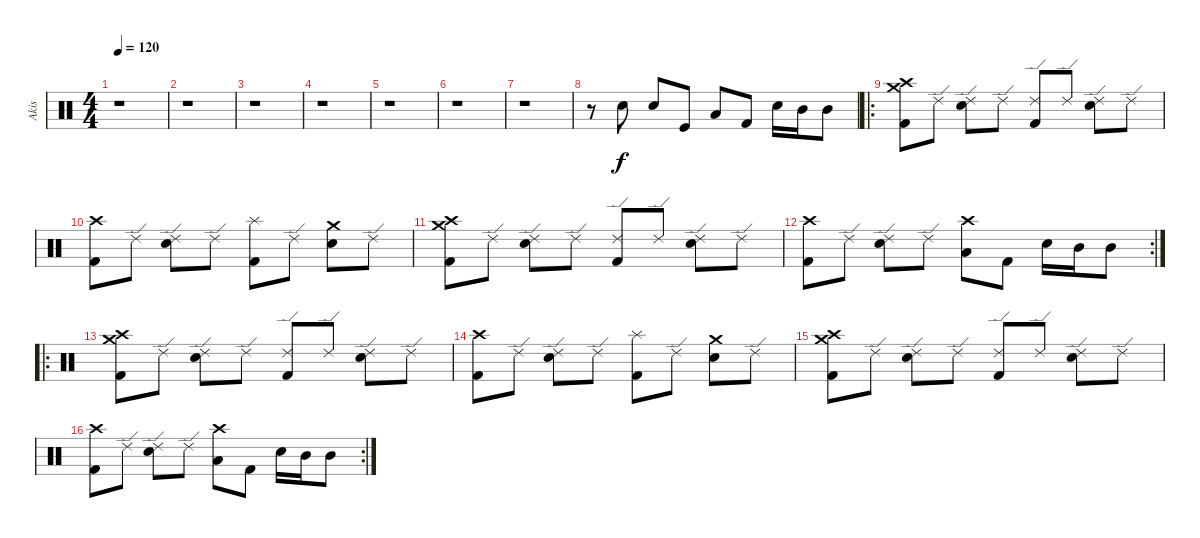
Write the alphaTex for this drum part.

\track ("Akis" "Akis") {instrument percussion}
\staff {score}
\articulation defaults
\ts (4 4)
\tempo 120
\clef neutral
\ks c
r.1{dy f} |
r.1 |
r.1 |
r.1 |
r.1 |
r.1 |
r.1 |
r.8 "Electric Snare (hit)".8 "Electric Snare (hit)".8 "Kick (hit)".8 "Low Tom (hit)".8 "Kick (hit) 2".8 "Electric Snare (hit)".16 "Mid Tom (hit)".16 "Mid Tom (hit)".8 |
\ro
("Crash high (hit)" "Kick (hit) 2" "Crash medium (hit)").8 "Ride (edge) 2".8 ("Ride (edge) 2" "Electric Snare (hit)").8 "Ride (edge) 2".8 ("Ride (edge) 2" "Kick (hit) 2").8 "Ride (edge) 2".8 ("Ride (edge) 2" "Electric Snare (hit)").8 "Ride (edge) 2".8 |
("Crash high (hit)" "Kick (hit) 2").8 "Ride (edge) 2".8 ("Ride (edge) 2" "Electric Snare (hit)").8 "Ride (edge) 2".8 ("Splash (hit)" "Kick (hit) 2").8 "Ride (edge) 2".8 ("Crash medium (hit)" "Electric Snare (hit)").8 "Ride (edge) 2".8 |
("Crash high (hit)" "Kick (hit) 2" "Crash medium (hit)").8 "Ride (edge) 2".8 ("Ride (edge) 2" "Electric Snare (hit)").8 "Ride (edge) 2".8 ("Ride (edge) 2" "Kick (hit) 2").8 "Ride (edge) 2".8 ("Ride (edge) 2" "Electric Snare (hit)").8 "Ride (edge) 2".8 |
\rc 2
("Crash high (hit)" "Kick (hit) 2").8 "Ride (edge) 2".8 ("Ride (edge) 2" "Electric Snare (hit)").8 "Ride (edge) 2".8 ("Crash high (hit)" "Low Tom (hit)").8 "Kick (hit) 2".8 "Electric Snare (hit)".16 "Mid Tom (hit)".16 "Mid Tom (hit)".8 |
\ro
("Crash high (hit)" "Kick (hit) 2" "Crash medium (hit)").8 "Ride (edge) 2".8 ("Ride (edge) 2" "Electric Snare (hit)").8 "Ride (edge) 2".8 ("Ride (edge) 2" "Kick (hit) 2").8 "Ride (edge) 2".8 ("Ride (edge) 2" "Electric Snare (hit)").8 "Ride (edge) 2".8 |
("Crash high (hit)" "Kick (hit) 2").8 "Ride (edge) 2".8 ("Ride (edge) 2" "Electric Snare (hit)").8 "Ride (edge) 2".8 ("Splash (hit)" "Kick (hit) 2").8 "Ride (edge) 2".8 ("Crash medium (hit)" "Electric Snare (hit)").8 "Ride (edge) 2".8 |
("Crash high (hit)" "Kick (hit) 2" "Crash medium (hit)").8 "Ride (edge) 2".8 ("Ride (edge) 2" "Electric Snare (hit)").8 "Ride (edge) 2".8 ("Ride (edge) 2" "Kick (hit) 2").8 "Ride (edge) 2".8 ("Ride (edge) 2" "Electric Snare (hit)").8 "Ride (edge) 2".8 |
\rc 2
("Crash high (hit)" "Kick (hit) 2").8 "Ride (edge) 2".8 ("Ride (edge) 2" "Electric Snare (hit)").8 "Ride (edge) 2".8 ("Crash high (hit)" "Low Tom (hit)").8 "Kick (hit) 2".8 "Electric Snare (hit)".16 "Mid Tom (hit)".16 "Mid Tom (hit)".8
